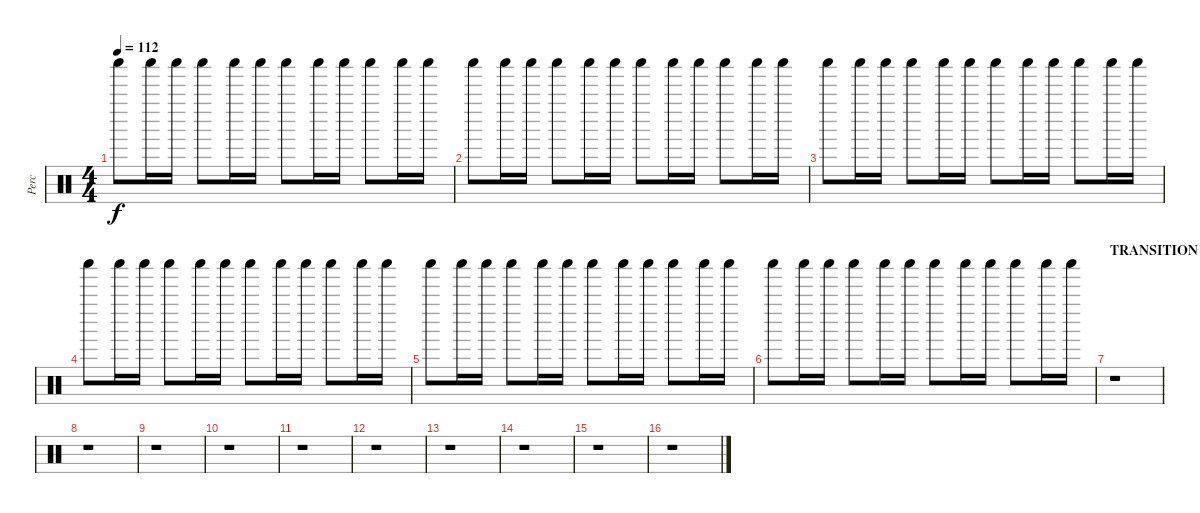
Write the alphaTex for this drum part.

\track ("Perc" "Perc") {instrument percussion}
\staff {score}
\articulation defaults
\ts (4 4)
\tempo 112
\clef neutral
\ks c "Shaker (hit)".8{dy f} "Shaker (hit)".16 "Shaker (hit)".16 "Shaker (hit)".8 "Shaker (hit)".16 "Shaker (hit)".16 "Shaker (hit)".8 "Shaker (hit)".16 "Shaker (hit)".16 "Shaker (hit)".8 "Shaker (hit)".16 "Shaker (hit)".16
|
"Shaker (hit)".8 "Shaker (hit)".16 "Shaker (hit)".16 "Shaker (hit)".8 "Shaker (hit)".16 "Shaker (hit)".16 "Shaker (hit)".8 "Shaker (hit)".16 "Shaker (hit)".16 "Shaker (hit)".8 "Shaker (hit)".16 "Shaker (hit)".16 |
"Shaker (hit)".8 "Shaker (hit)".16 "Shaker (hit)".16 "Shaker (hit)".8 "Shaker (hit)".16 "Shaker (hit)".16 "Shaker (hit)".8 "Shaker (hit)".16 "Shaker (hit)".16 "Shaker (hit)".8 "Shaker (hit)".16 "Shaker (hit)".16 |
"Shaker (hit)".8 "Shaker (hit)".16 "Shaker (hit)".16 "Shaker (hit)".8 "Shaker (hit)".16 "Shaker (hit)".16 "Shaker (hit)".8 "Shaker (hit)".16 "Shaker (hit)".16 "Shaker (hit)".8 "Shaker (hit)".16 "Shaker (hit)".16 |
"Shaker (hit)".8 "Shaker (hit)".16 "Shaker (hit)".16 "Shaker (hit)".8 "Shaker (hit)".16 "Shaker (hit)".16 "Shaker (hit)".8 "Shaker (hit)".16 "Shaker (hit)".16 "Shaker (hit)".8 "Shaker (hit)".16 "Shaker (hit)".16 |
"Shaker (hit)".8 "Shaker (hit)".16 "Shaker (hit)".16 "Shaker (hit)".8 "Shaker (hit)".16 "Shaker (hit)".16 "Shaker (hit)".8 "Shaker (hit)".16 "Shaker (hit)".16 "Shaker (hit)".8 "Shaker (hit)".16 "Shaker (hit)".16 |
\section ("" "TRANSITION")
r.1 |
r.1 |
r.1 |
r.1 |
r.1 |
r.1 |
r.1 |
r.1 |
r.1 |
r.1
